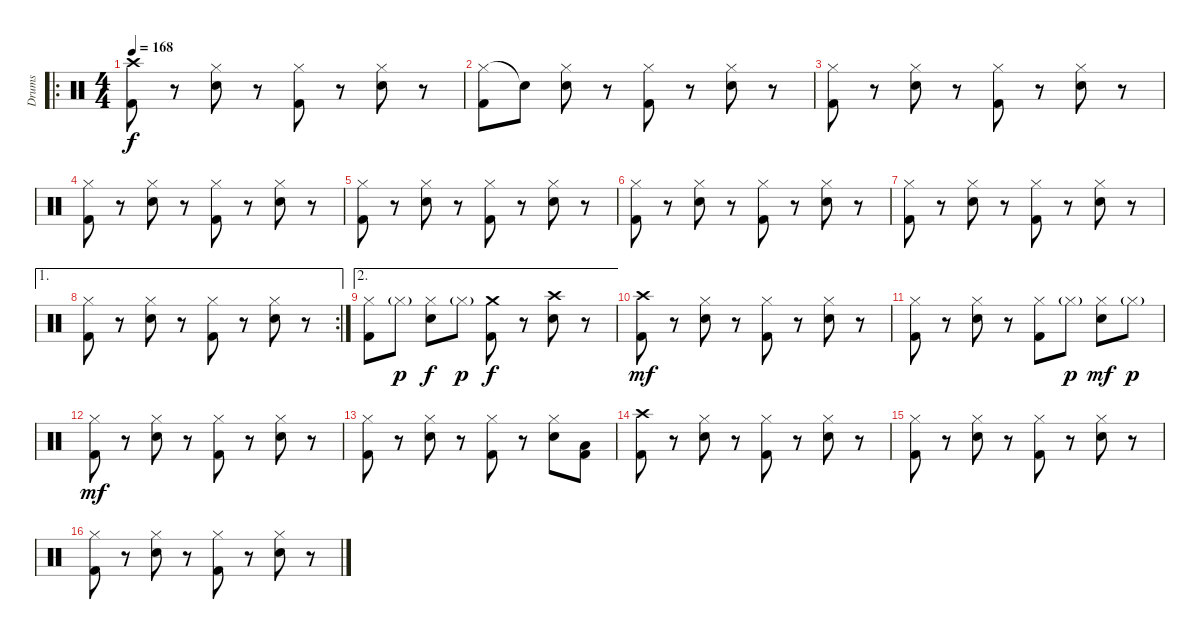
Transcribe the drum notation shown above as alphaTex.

\track ("Drums" "Drums") {instrument percussion}
\staff {score}
\articulation defaults
\ro
\ts (4 4)
\tempo 168
\clef neutral
\ks c
("Crash high (hit)" "Kick (hit) 2").8{dy f} r.8 ("Hi-Hat (closed)" "Electric Snare (hit)").8 r.8 ("Hi-Hat (closed)" "Kick (hit) 2").8 r.8 ("Hi-Hat (closed)" "Electric Snare (hit)").8 r.8 |
("Hi-Hat (closed)" "Kick (hit) 2").8 "Snare (hit)"{t}.8 ("Hi-Hat (closed)" "Electric Snare (hit)").8 r.8 ("Hi-Hat (closed)" "Kick (hit) 2").8 r.8 ("Hi-Hat (closed)" "Electric Snare (hit)").8 r.8 |
("Hi-Hat (closed)" "Kick (hit) 2").8 r.8 ("Hi-Hat (closed)" "Electric Snare (hit)").8 r.8 ("Hi-Hat (closed)" "Kick (hit) 2").8 r.8 ("Hi-Hat (closed)" "Electric Snare (hit)").8 r.8 |
("Hi-Hat (closed)" "Kick (hit) 2").8 r.8 ("Hi-Hat (closed)" "Electric Snare (hit)").8 r.8 ("Hi-Hat (closed)" "Kick (hit) 2").8 r.8 ("Hi-Hat (closed)" "Electric Snare (hit)").8 r.8 |
("Hi-Hat (closed)" "Kick (hit) 2").8 r.8 ("Hi-Hat (closed)" "Electric Snare (hit)").8 r.8 ("Hi-Hat (closed)" "Kick (hit) 2").8 r.8 ("Hi-Hat (closed)" "Electric Snare (hit)").8 r.8 |
("Hi-Hat (closed)" "Kick (hit) 2").8 r.8 ("Hi-Hat (closed)" "Electric Snare (hit)").8 r.8 ("Hi-Hat (closed)" "Kick (hit) 2").8 r.8 ("Hi-Hat (closed)" "Electric Snare (hit)").8 r.8 |
("Hi-Hat (closed)" "Kick (hit) 2").8 r.8 ("Hi-Hat (closed)" "Electric Snare (hit)").8 r.8 ("Hi-Hat (closed)" "Kick (hit) 2").8 r.8 ("Hi-Hat (closed)" "Electric Snare (hit)").8 r.8 |
\ae 1
\rc 2
("Hi-Hat (closed)" "Kick (hit) 2").8 r.8 ("Hi-Hat (closed)" "Electric Snare (hit)").8 r.8 ("Hi-Hat (closed)" "Kick (hit) 2").8 r.8 ("Hi-Hat (closed)" "Electric Snare (hit)").8 r.8 |
\ae 2
("Hi-Hat (closed)" "Kick (hit) 2").8 "Hi-Hat (closed)"{g}.8{dy p} ("Hi-Hat (closed)" "Electric Snare (hit)").8{dy f} "Hi-Hat (closed)"{g}.8{dy p} ("Crash medium (hit)" "Kick (hit) 2").8{dy f} r.8 ("Crash high (hit)" "Electric Snare (hit)").8 r.8 |
("Crash high (hit)" "Kick (hit) 2").8{dy mf} r.8 ("Hi-Hat (closed)" "Electric Snare (hit)").8 r.8 ("Hi-Hat (closed)" "Kick (hit) 2").8 r.8 ("Hi-Hat (closed)" "Electric Snare (hit)").8 r.8 |
("Hi-Hat (closed)" "Kick (hit) 2").8 r.8 ("Hi-Hat (closed)" "Electric Snare (hit)").8 r.8 ("Hi-Hat (closed)" "Kick (hit) 2").8 "Hi-Hat (closed)"{g}.8{dy p} ("Hi-Hat (closed)" "Electric Snare (hit)").8{dy mf} "Hi-Hat (closed)"{g}.8{dy p} |
("Hi-Hat (closed)" "Kick (hit) 2").8{dy mf} r.8 ("Hi-Hat (closed)" "Electric Snare (hit)").8 r.8 ("Hi-Hat (closed)" "Kick (hit) 2").8 r.8 ("Hi-Hat (closed)" "Electric Snare (hit)").8 r.8 |
("Hi-Hat (closed)" "Kick (hit) 2").8 r.8 ("Hi-Hat (closed)" "Electric Snare (hit)").8 r.8 ("Hi-Hat (closed)" "Kick (hit) 2").8 r.8 ("Hi-Hat (closed)" "Electric Snare (hit)").8 ("Low Tom (hit)" "Kick (hit) 2").8 |
("Crash high (hit)" "Kick (hit) 2").8 r.8 ("Hi-Hat (closed)" "Electric Snare (hit)").8 r.8 ("Hi-Hat (closed)" "Kick (hit) 2").8 r.8 ("Hi-Hat (closed)" "Electric Snare (hit)").8 r.8 |
("Hi-Hat (closed)" "Kick (hit) 2").8 r.8 ("Hi-Hat (closed)" "Electric Snare (hit)").8 r.8 ("Hi-Hat (closed)" "Kick (hit) 2").8 r.8 ("Hi-Hat (closed)" "Electric Snare (hit)").8 r.8 |
("Hi-Hat (closed)" "Kick (hit) 2").8 r.8 ("Hi-Hat (closed)" "Electric Snare (hit)").8 r.8 ("Hi-Hat (closed)" "Kick (hit) 2").8 r.8 ("Hi-Hat (closed)" "Electric Snare (hit)").8 r.8
